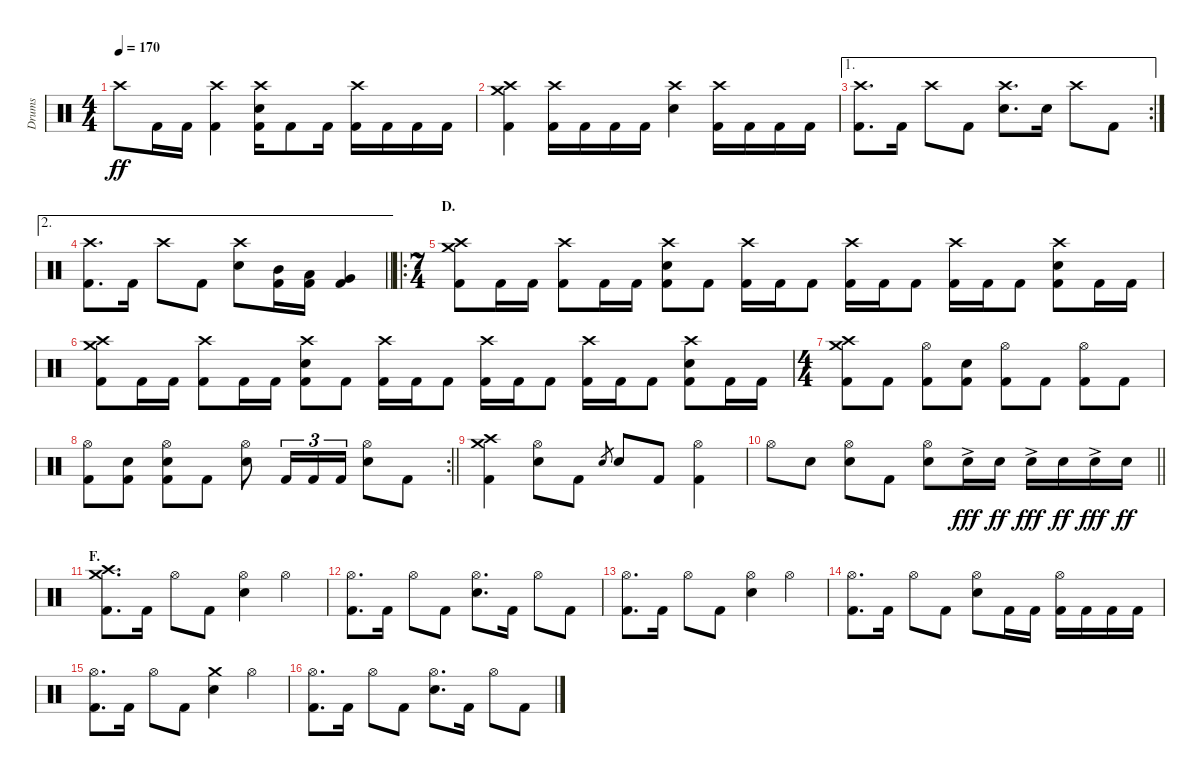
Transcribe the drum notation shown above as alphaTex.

\track ("Drums" "Drums") {instrument percussion}
\staff {score}
\articulation defaults
\ts (4 4)
\tempo 170
\clef neutral
\ks c "Crash high (hit)".8{dy ff} "Kick (hit) 2".16 "Kick (hit) 2".16
("Crash high (hit)" "Kick (hit) 2").4 ("Crash high (hit)" "Electric Snare (hit)" "Kick (hit) 2").16 "Kick (hit) 2".8 "Kick (hit) 2".16 ("Crash high (hit)" "Kick (hit) 2").16 "Kick (hit) 2".16 "Kick (hit) 2".16 "Kick (hit) 2".16 |
("Crash medium (hit)" "Crash high (hit)" "Kick (hit) 2").4 ("Crash high (hit)" "Kick (hit) 2").16 "Kick (hit) 2".16 "Kick (hit) 2".16 "Kick (hit) 2".16 ("Crash high (hit)" "Electric Snare (hit)").4 ("Crash high (hit)" "Kick (hit) 2").16 "Kick (hit) 2".16 "Kick (hit) 2".16 "Kick (hit) 2".16 |
\ae 1
\rc 2
("Crash high (hit)" "Kick (hit) 2").8{d} "Kick (hit) 2".16 "Crash high (hit)".8 "Kick (hit) 2".8 ("Crash high (hit)" "Electric Snare (hit)").8{d} "Electric Snare (hit)".16 "Crash high (hit)".8 "Kick (hit) 2".8 |
\ae 2
\barLineRight lightlight
("Crash high (hit)" "Kick (hit) 2").8{d} "Kick (hit) 2".16 "Crash high (hit)".8 "Kick (hit) 2".8 ("Crash high (hit)" "Electric Snare (hit)").8 ("Mid Tom (hit)" "Kick (hit) 2").16 ("Low Tom (hit)" "Kick (hit) 2").16 ("Very Low Tom (hit)" "Kick (hit) 2").4 |
\ro
\ts (7 4)
\section ("" "D.")
("Crash medium (hit)" "Crash high (hit)" "Kick (hit) 2").8 "Kick (hit) 2".16 "Kick (hit) 2".16 ("Crash high (hit)" "Kick (hit) 2").8 "Kick (hit) 2".16 "Kick (hit) 2".16 ("Crash high (hit)" "Electric Snare (hit)" "Kick (hit) 2").8 "Kick (hit) 2".8 ("Crash high (hit)" "Kick (hit) 2").16 "Kick (hit) 2".16 "Kick (hit) 2".8 ("Crash high (hit)" "Kick (hit) 2").16 "Kick (hit) 2".16 "Kick (hit) 2".8 ("Crash high (hit)" "Kick (hit) 2").16 "Kick (hit) 2".16 "Kick (hit) 2".8 ("Crash high (hit)" "Electric Snare (hit)" "Kick (hit) 2").8 "Kick (hit) 2".16 "Kick (hit) 2".16 |
("Crash medium (hit)" "Crash high (hit)" "Kick (hit) 2").8 "Kick (hit) 2".16 "Kick (hit) 2".16 ("Crash high (hit)" "Kick (hit) 2").8 "Kick (hit) 2".16 "Kick (hit) 2".16 ("Crash high (hit)" "Electric Snare (hit)" "Kick (hit) 2").8 "Kick (hit) 2".8 ("Crash high (hit)" "Kick (hit) 2").16 "Kick (hit) 2".16 "Kick (hit) 2".8 ("Crash high (hit)" "Kick (hit) 2").16 "Kick (hit) 2".16 "Kick (hit) 2".8 ("Crash high (hit)" "Kick (hit) 2").16 "Kick (hit) 2".16 "Kick (hit) 2".8 ("Crash high (hit)" "Electric Snare (hit)" "Kick (hit) 2").8 "Kick (hit) 2".16 "Kick (hit) 2".16 |
\ts (4 4)
("Crash medium (hit)" "Crash high (hit)" "Kick (hit) 2").8 "Kick (hit) 2".8 ("Hi-Hat (open)" "Kick (hit) 2").8 ("Electric Snare (hit)" "Kick (hit) 2").8 ("Hi-Hat (open)" "Kick (hit) 2").8 "Kick (hit) 2".8 ("Hi-Hat (open)" "Kick (hit) 2").8 "Kick (hit) 2".8 |
\rc 2
\barLineRight lightlight
("Hi-Hat (open)" "Kick (hit) 2").8 ("Electric Snare (hit)" "Kick (hit) 2").8 ("Hi-Hat (open)" "Electric Snare (hit)" "Kick (hit) 2").8 "Kick (hit) 2".8 ("Hi-Hat (open)" "Electric Snare (hit)").8 "Kick (hit) 2".16{tu (3 2)} "Kick (hit) 2".16{tu (3 2)} "Kick (hit) 2".16{tu (3 2)} ("Hi-Hat (open)" "Electric Snare (hit)").8 "Kick (hit) 2".8 |
\section ("" "")
("Crash medium (hit)" "Crash high (hit)" "Kick (hit) 2").4 ("Hi-Hat (open)" "Electric Snare (hit)").8 "Kick (hit) 2".8 "Electric Snare (hit)".8{gr} "Electric Snare (hit)".8 "Kick (hit) 2".8 ("Hi-Hat (open)" "Kick (hit) 2").4 |
\barLineRight lightlight "Hi-Hat (open)".8 "Electric Snare (hit)".8
("Hi-Hat (open)" "Electric Snare (hit)").8 "Kick (hit) 2".8 ("Hi-Hat (open)" "Electric Snare (hit)").8 "Electric Snare (hit)"{ac}.16{dy fff} "Electric Snare (hit)".16{dy ff} "Electric Snare (hit)"{ac}.16{dy fff} "Electric Snare (hit)".16{dy ff} "Electric Snare (hit)"{ac}.16{dy fff} "Electric Snare (hit)".16{dy ff} |
\section ("" "F.")
("Crash medium (hit)" "Crash high (hit)" "Kick (hit) 2").8{d} "Kick (hit) 2".16 "Hi-Hat (open)".8 "Kick (hit) 2".8 ("Hi-Hat (open)" "Electric Snare (hit)").4 "Hi-Hat (open)".4 |
("Hi-Hat (open)" "Kick (hit) 2").8{d} "Kick (hit) 2".16 "Hi-Hat (open)".8 "Kick (hit) 2".8 ("Hi-Hat (open)" "Electric Snare (hit)").8{d} "Kick (hit) 2".16 "Hi-Hat (open)".8 "Kick (hit) 2".8 |
("Hi-Hat (open)" "Kick (hit) 2").8{d} "Kick (hit) 2".16 "Hi-Hat (open)".8 "Kick (hit) 2".8 ("Hi-Hat (open)" "Electric Snare (hit)").4 "Hi-Hat (open)".4 |
("Hi-Hat (open)" "Kick (hit) 2").8{d} "Kick (hit) 2".16 "Hi-Hat (open)".8 "Kick (hit) 2".8 ("Hi-Hat (open)" "Electric Snare (hit)").8 "Kick (hit) 2".16 "Kick (hit) 2".16 ("Hi-Hat (open)" "Kick (hit) 2").16 "Kick (hit) 2".16 "Kick (hit) 2".16 "Kick (hit) 2".16 |
("Hi-Hat (open)" "Kick (hit) 2").8{d} "Kick (hit) 2".16 "Hi-Hat (open)".8 "Kick (hit) 2".8 ("Crash medium (hit)" "Electric Snare (hit)").4 "Hi-Hat (open)".4 |
("Hi-Hat (open)" "Kick (hit) 2").8{d} "Kick (hit) 2".16 "Hi-Hat (open)".8 "Kick (hit) 2".8 ("Hi-Hat (open)" "Electric Snare (hit)").8{d} "Kick (hit) 2".16 "Hi-Hat (open)".8 "Kick (hit) 2".8
